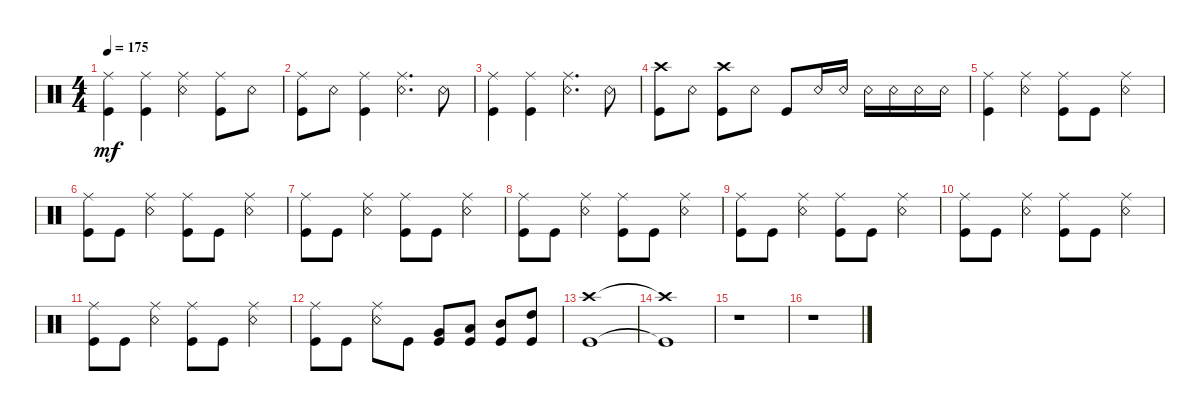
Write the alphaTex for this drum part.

\defaultSystemsLayout 4
\bracketExtendMode groupsimilarinstruments
\singleTrackTrackNamePolicy hidden
\multiTrackTrackNamePolicy hidden
\firstSystemTrackNameOrientation horizontal
\otherSystemsTrackNameOrientation horizontal
\track ("Drumkit" "Drums") {solo instrument percussion}
\staff {score}
\articulation defaults
\ts (4 4)
\tempo 175
\clef neutral
\ks c
("Kick (hit)" "Ride (middle)").4{dy mf} ("Kick (hit)" "Ride (middle)").4 ("Snare (rim shot)" "Ride (middle)").4 ("Kick (hit)" "Ride (middle)").8 "Snare (rim shot)".8 |
("Kick (hit)" "Ride (middle)").8 "Snare (rim shot)".8 ("Kick (hit)" "Ride (middle)").4 ("Snare (rim shot)" "Ride (middle)").4{d} "Snare (rim shot)".8 |
("Kick (hit)" "Ride (middle)").4 ("Kick (hit)" "Ride (middle)").4 ("Snare (rim shot)" "Ride (middle)").4{d} "Snare (rim shot)".8 |
("Kick (hit)" "Crash high (hit)").8 "Snare (rim shot)".8 ("Kick (hit)" "Crash high (hit)").8 "Snare (rim shot)".8 "Kick (hit)".8 "Snare (rim shot)".16 "Snare (rim shot)".16 "Snare (rim shot)".16 "Snare (rim shot)".16 "Snare (rim shot)".16 "Snare (rim shot)".16 |
("Kick (hit)" "Ride (middle)").4 ("Snare (rim shot)" "Ride (middle)").4 ("Kick (hit)" "Ride (middle)").8 "Kick (hit)".8 ("Snare (rim shot)" "Ride (middle)").4 |
("Kick (hit)" "Ride (middle)").8 "Kick (hit)".8 ("Snare (rim shot)" "Ride (middle)").4 ("Kick (hit)" "Ride (middle)").8 "Kick (hit)".8 ("Snare (rim shot)" "Ride (middle)").4 |
("Kick (hit)" "Ride (middle)").8 "Kick (hit)".8 ("Snare (rim shot)" "Ride (middle)").4 ("Kick (hit)" "Ride (middle)").8 "Kick (hit)".8 ("Snare (rim shot)" "Ride (middle)").4 |
("Kick (hit)" "Ride (middle)").8 "Kick (hit)".8 ("Snare (rim shot)" "Ride (middle)").4 ("Kick (hit)" "Ride (middle)").8 "Kick (hit)".8 ("Snare (rim shot)" "Ride (middle)").4 |
("Kick (hit)" "Ride (middle)").8 "Kick (hit)".8 ("Snare (rim shot)" "Ride (middle)").4 ("Kick (hit)" "Ride (middle)").8 "Kick (hit)".8 ("Snare (rim shot)" "Ride (middle)").4 |
("Kick (hit)" "Ride (middle)").8 "Kick (hit)".8 ("Snare (rim shot)" "Ride (middle)").4 ("Kick (hit)" "Ride (middle)").8 "Kick (hit)".8 ("Snare (rim shot)" "Ride (middle)").4 |
("Kick (hit)" "Ride (middle)").8 "Kick (hit)".8 ("Snare (rim shot)" "Ride (middle)").4 ("Kick (hit)" "Ride (middle)").8 "Kick (hit)".8 ("Snare (rim shot)" "Ride (middle)").4 |
\tempo (85 0.5 hide)
("Kick (hit)" "Ride (middle)").8 "Kick (hit)".8 ("Snare (rim shot)" "Ride (middle)").8 "Kick (hit)".8 ("Kick (hit)" "Very Low Tom (hit)").8 ("Kick (hit)" "Low Tom (hit)").8 ("Kick (hit)" "Mid Tom (hit)").8 ("Kick (hit)" "High Tom (hit)").8 |
\tempo (175 hide)
("Kick (hit)" "Crash high (hit)").1 |
("Kick (hit)"{t} "Crash high (hit)"{t}).1 |
r.1 |
r.1
